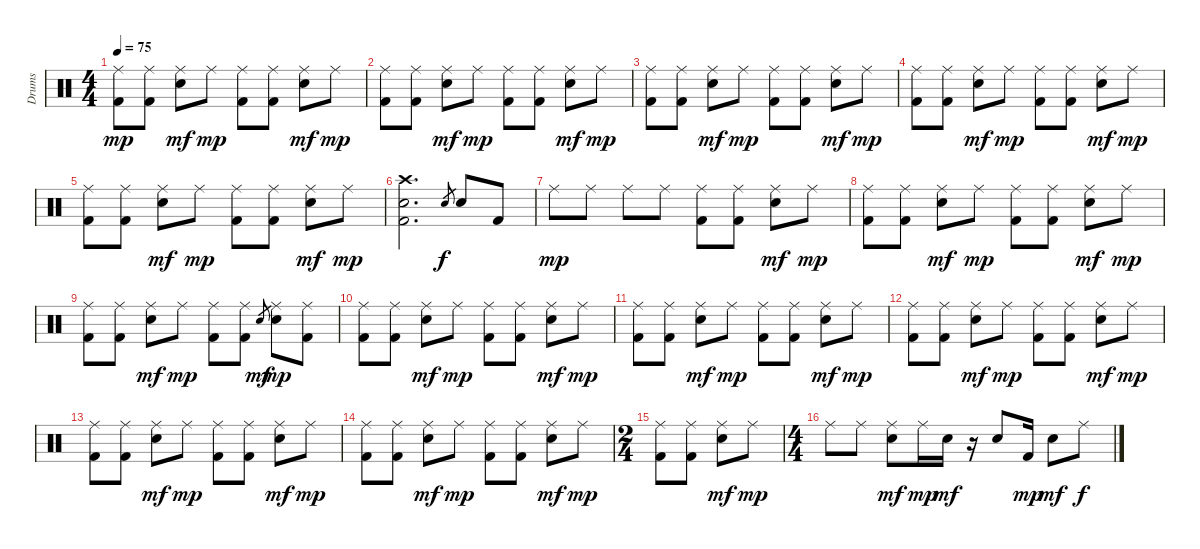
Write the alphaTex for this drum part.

\track ("Drums" "Drums") {instrument percussion}
\staff {score}
\articulation defaults
\ts (4 4)
\tempo 75
\clef neutral
\ks c
("Ride (middle)" "Kick (hit) 2").8{dy mp} ("Ride (middle)" "Kick (hit) 2").8 ("Ride (middle)" "Electric Snare (hit)").8{dy mf} "Ride (middle)".8{dy mp} ("Ride (middle)" "Kick (hit) 2").8 ("Ride (middle)" "Kick (hit) 2").8 ("Ride (middle)" "Electric Snare (hit)").8{dy mf} "Ride (middle)".8{dy mp} |
("Ride (middle)" "Kick (hit) 2").8 ("Ride (middle)" "Kick (hit) 2").8 ("Ride (middle)" "Electric Snare (hit)").8{dy mf} "Ride (middle)".8{dy mp} ("Ride (middle)" "Kick (hit) 2").8 ("Ride (middle)" "Kick (hit) 2").8 ("Ride (middle)" "Electric Snare (hit)").8{dy mf} "Ride (middle)".8{dy mp} |
("Ride (middle)" "Kick (hit) 2").8 ("Ride (middle)" "Kick (hit) 2").8 ("Ride (middle)" "Electric Snare (hit)").8{dy mf} "Ride (middle)".8{dy mp} ("Ride (middle)" "Kick (hit) 2").8 ("Ride (middle)" "Kick (hit) 2").8 ("Ride (middle)" "Electric Snare (hit)").8{dy mf} "Ride (middle)".8{dy mp} |
("Ride (middle)" "Kick (hit) 2").8 ("Ride (middle)" "Kick (hit) 2").8 ("Ride (middle)" "Electric Snare (hit)").8{dy mf} "Ride (middle)".8{dy mp} ("Ride (middle)" "Kick (hit) 2").8 ("Ride (middle)" "Kick (hit) 2").8 ("Ride (middle)" "Electric Snare (hit)").8{dy mf} "Ride (middle)".8{dy mp} |
("Ride (middle)" "Kick (hit) 2").8 ("Ride (middle)" "Kick (hit) 2").8 ("Ride (middle)" "Electric Snare (hit)").8{dy mf} "Ride (middle)".8{dy mp} ("Ride (middle)" "Kick (hit) 2").8 ("Ride (middle)" "Kick (hit) 2").8 ("Ride (middle)" "Electric Snare (hit)").8{dy mf} "Ride (middle)".8{dy mp} |
("Crash high (hit)" "Electric Snare (hit)" "Kick (hit) 2").2{d} "Electric Snare (hit)".8{gr dy f} "Electric Snare (hit)".8 "Kick (hit) 2".8 |
"Ride (middle)".8{dy mp} "Ride (middle)".8 "Ride (middle)".8 "Ride (middle)".8 ("Ride (middle)" "Kick (hit) 2").8 ("Ride (middle)" "Kick (hit) 2").8 ("Ride (middle)" "Electric Snare (hit)").8{dy mf} "Ride (middle)".8{dy mp} |
("Ride (middle)" "Kick (hit) 2").8 ("Ride (middle)" "Kick (hit) 2").8 ("Ride (middle)" "Electric Snare (hit)").8{dy mf} "Ride (middle)".8{dy mp} ("Ride (middle)" "Kick (hit) 2").8 ("Ride (middle)" "Kick (hit) 2").8 ("Ride (middle)" "Electric Snare (hit)").8{dy mf} "Ride (middle)".8{dy mp} |
("Ride (middle)" "Kick (hit) 2").8 ("Ride (middle)" "Kick (hit) 2").8 ("Ride (middle)" "Electric Snare (hit)").8{dy mf} "Ride (middle)".8{dy mp} ("Ride (middle)" "Kick (hit) 2").8 ("Ride (middle)" "Kick (hit) 2").8 "Electric Snare (hit)".8{gr dy mf} ("Ride (middle)" "Electric Snare (hit)").8{dy mp} ("Ride (middle)" "Kick (hit) 2").8 |
("Ride (middle)" "Kick (hit) 2").8 ("Ride (middle)" "Kick (hit) 2").8 ("Ride (middle)" "Electric Snare (hit)").8{dy mf} "Ride (middle)".8{dy mp} ("Ride (middle)" "Kick (hit) 2").8 ("Ride (middle)" "Kick (hit) 2").8 ("Ride (middle)" "Electric Snare (hit)").8{dy mf} "Ride (middle)".8{dy mp} |
("Ride (middle)" "Kick (hit) 2").8 ("Ride (middle)" "Kick (hit) 2").8 ("Ride (middle)" "Electric Snare (hit)").8{dy mf} "Ride (middle)".8{dy mp} ("Ride (middle)" "Kick (hit) 2").8 ("Ride (middle)" "Kick (hit) 2").8 ("Ride (middle)" "Electric Snare (hit)").8{dy mf} "Ride (middle)".8{dy mp} |
("Ride (middle)" "Kick (hit) 2").8 ("Ride (middle)" "Kick (hit) 2").8 ("Ride (middle)" "Electric Snare (hit)").8{dy mf} "Ride (middle)".8{dy mp} ("Ride (middle)" "Kick (hit) 2").8 ("Ride (middle)" "Kick (hit) 2").8 ("Ride (middle)" "Electric Snare (hit)").8{dy mf} "Ride (middle)".8{dy mp} |
("Ride (middle)" "Kick (hit) 2").8 ("Ride (middle)" "Kick (hit) 2").8 ("Ride (middle)" "Electric Snare (hit)").8{dy mf} "Ride (middle)".8{dy mp} ("Ride (middle)" "Kick (hit) 2").8 ("Ride (middle)" "Kick (hit) 2").8 ("Ride (middle)" "Electric Snare (hit)").8{dy mf} "Ride (middle)".8{dy mp} |
("Ride (middle)" "Kick (hit) 2").8 ("Ride (middle)" "Kick (hit) 2").8 ("Ride (middle)" "Electric Snare (hit)").8{dy mf} "Ride (middle)".8{dy mp} ("Ride (middle)" "Kick (hit) 2").8 ("Ride (middle)" "Kick (hit) 2").8 ("Ride (middle)" "Electric Snare (hit)").8{dy mf} "Ride (middle)".8{dy mp} |
\ts (2 4)
("Ride (middle)" "Kick (hit) 2").8 ("Ride (middle)" "Kick (hit) 2").8 ("Ride (middle)" "Electric Snare (hit)").8{dy mf} "Ride (middle)".8{dy mp} |
\ts (4 4)
"Ride (middle)".8 "Ride (middle)".8 ("Ride (middle)" "Electric Snare (hit)").8{dy mf} "Ride (middle)".16{dy mp} "Electric Snare (hit)".16{dy mf} r.16 "Electric Snare (hit)".8 "Kick (hit) 2".16{dy mp} "Electric Snare (hit)".8{dy mf} "Ride (middle)".8{dy f}
